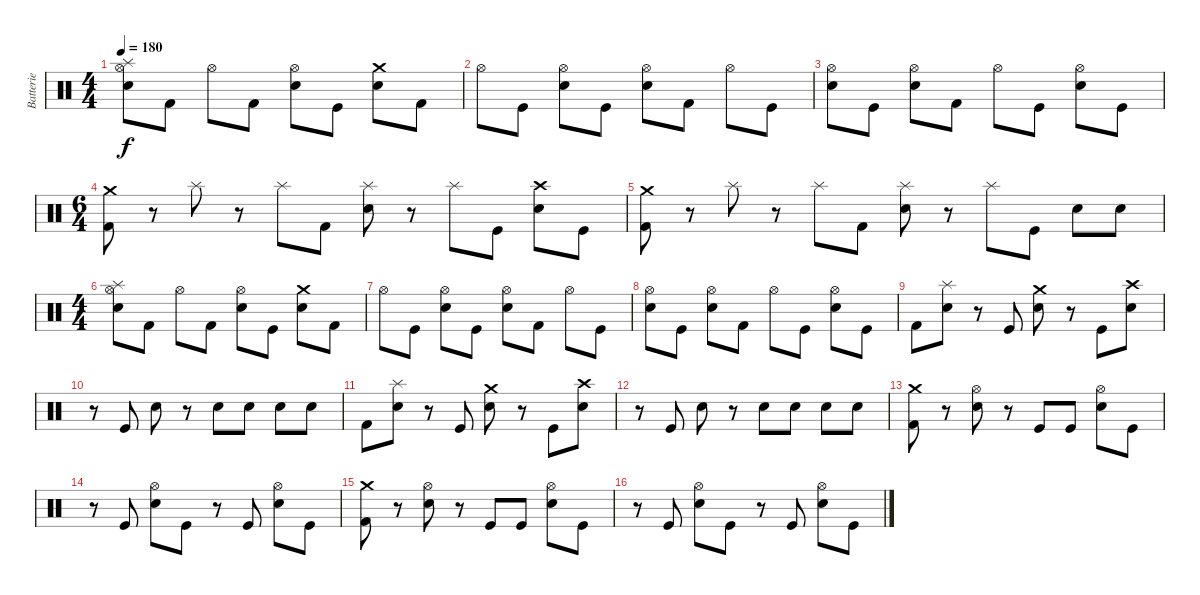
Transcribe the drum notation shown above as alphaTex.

\track ("Batterie" "Batterie") {instrument percussion}
\staff {score}
\articulation defaults
\ts (4 4)
\tempo 180
\clef neutral
\ks c
("Splash (hit)" "Hi-Hat (open)" "Electric Snare (hit)").8{dy f} "Kick (hit) 2".8 "Hi-Hat (open)".8 "Kick (hit) 2".8 ("Hi-Hat (open)" "Electric Snare (hit)").8 "Kick (hit)".8 ("Crash medium (hit)" "Electric Snare (hit)").8 "Kick (hit) 2".8 |
"Hi-Hat (open)".8 "Kick (hit)".8 ("Hi-Hat (open)" "Electric Snare (hit)").8 "Kick (hit)".8 ("Hi-Hat (open)" "Electric Snare (hit)").8 "Kick (hit) 2".8 "Hi-Hat (open)".8 "Kick (hit)".8 |
("Hi-Hat (open)" "Electric Snare (hit)").8 "Kick (hit)".8 ("Hi-Hat (open)" "Electric Snare (hit)").8 "Kick (hit) 2".8 "Hi-Hat (open)".8 "Kick (hit)".8 ("Hi-Hat (open)" "Electric Snare (hit)").8 "Kick (hit)".8 |
\ts (6 4)
("Crash medium (hit)" "Kick (hit) 2").8 r.8 "Splash (hit)".8 r.8 "Splash (hit)".8 "Kick (hit) 2".8 ("Splash (hit)" "Electric Snare (hit)").8 r.8 "Splash (hit)".8 "Kick (hit)".8 ("Crash high (hit)" "Electric Snare (hit)").8 "Kick (hit)".8 |
("Crash medium (hit)" "Kick (hit) 2").8 r.8 "Splash (hit)".8 r.8 "Splash (hit)".8 "Kick (hit) 2".8 ("Splash (hit)" "Electric Snare (hit)").8 r.8 "Splash (hit)".8 "Kick (hit)".8 "Electric Snare (hit)".8 "Electric Snare (hit)".8 |
\ts (4 4)
("Splash (hit)" "Hi-Hat (open)" "Electric Snare (hit)").8 "Kick (hit) 2".8 "Hi-Hat (open)".8 "Kick (hit) 2".8 ("Hi-Hat (open)" "Electric Snare (hit)").8 "Kick (hit)".8 ("Crash medium (hit)" "Electric Snare (hit)").8 "Kick (hit) 2".8 |
"Hi-Hat (open)".8 "Kick (hit)".8 ("Hi-Hat (open)" "Electric Snare (hit)").8 "Kick (hit)".8 ("Hi-Hat (open)" "Electric Snare (hit)").8 "Kick (hit) 2".8 "Hi-Hat (open)".8 "Kick (hit)".8 |
("Hi-Hat (open)" "Electric Snare (hit)").8 "Kick (hit)".8 ("Hi-Hat (open)" "Electric Snare (hit)").8 "Kick (hit) 2".8 "Hi-Hat (open)".8 "Kick (hit)".8 ("Hi-Hat (open)" "Electric Snare (hit)").8 "Kick (hit)".8 |
"Kick (hit) 2".8 ("Splash (hit)" "Electric Snare (hit)").8 r.8 "Kick (hit)".8 ("Crash medium (hit)" "Electric Snare (hit)").8 r.8 "Kick (hit)".8 ("Crash high (hit)" "Electric Snare (hit)").8 |
r.8 "Kick (hit)".8 "Electric Snare (hit)".8 r.8 "Electric Snare (hit)".8 "Electric Snare (hit)".8 "Electric Snare (hit)".8 "Electric Snare (hit)".8 |
"Kick (hit) 2".8 ("Splash (hit)" "Electric Snare (hit)").8 r.8 "Kick (hit)".8 ("Crash medium (hit)" "Electric Snare (hit)").8 r.8 "Kick (hit)".8 ("Crash high (hit)" "Electric Snare (hit)").8 |
r.8 "Kick (hit)".8 "Electric Snare (hit)".8 r.8 "Electric Snare (hit)".8 "Electric Snare (hit)".8 "Electric Snare (hit)".8 "Electric Snare (hit)".8 |
("Crash medium (hit)" "Kick (hit) 2").8 r.8 ("Hi-Hat (open)" "Electric Snare (hit)").8 r.8 "Kick (hit)".8 "Kick (hit)".8 ("Hi-Hat (open)" "Electric Snare (hit)").8 "Kick (hit)".8 |
r.8 "Kick (hit)".8 ("Hi-Hat (open)" "Electric Snare (hit)").8 "Kick (hit)".8 r.8 "Kick (hit)".8 ("Hi-Hat (open)" "Electric Snare (hit)").8 "Kick (hit)".8 |
("Crash medium (hit)" "Kick (hit) 2").8 r.8 ("Hi-Hat (open)" "Electric Snare (hit)").8 r.8 "Kick (hit)".8 "Kick (hit)".8 ("Hi-Hat (open)" "Electric Snare (hit)").8 "Kick (hit)".8 |
r.8 "Kick (hit)".8 ("Hi-Hat (open)" "Electric Snare (hit)").8 "Kick (hit)".8 r.8 "Kick (hit)".8 ("Hi-Hat (open)" "Electric Snare (hit)").8 "Kick (hit)".8
